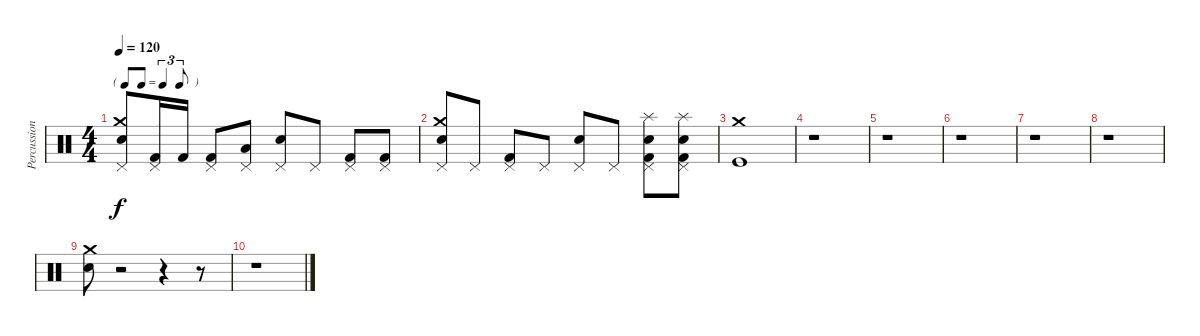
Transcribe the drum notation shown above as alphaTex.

\track ("Percussions" "Percussion") {instrument percussion}
\staff {score}
\articulation defaults
\ts (4 4)
\tf triplet8th
\tempo 120
\clef neutral
\ks c
("Snare (hit) 2" "Crash medium (hit)" "Pedal Hi-Hat (hit)").8{dy f} ("Kick (hit) 2" "Pedal Hi-Hat (hit)").16 "Kick (hit) 2".16 ("Kick (hit) 2" "Pedal Hi-Hat (hit)").8 ("Low Tom (hit)" "Pedal Hi-Hat (hit)").8 ("Electric Snare (hit)" "Pedal Hi-Hat (hit)").8 "Pedal Hi-Hat (hit)".8 ("Kick (hit) 2" "Pedal Hi-Hat (hit)").8 ("Kick (hit) 2" "Pedal Hi-Hat (hit)").8 |
("Snare (hit) 2" "Crash medium (hit)" "Pedal Hi-Hat (hit)").8 "Pedal Hi-Hat (hit)".8 ("Kick (hit) 2" "Pedal Hi-Hat (hit)").8 "Pedal Hi-Hat (hit)".8 ("Electric Snare (hit)" "Pedal Hi-Hat (hit)").8 "Pedal Hi-Hat (hit)".8 ("Electric Snare (hit)" "Splash (hit)" "Kick (hit) 2" "Pedal Hi-Hat (hit)").8 ("Electric Snare (hit)" "Splash (hit)" "Kick (hit) 2" "Pedal Hi-Hat (hit)").8 |
("Crash medium (hit)" "Kick (hit)").1 |
r.1 |
r.1 |
r.1 |
r.1 |
r.1 |
("Crash medium (hit)" "Electric Snare (hit)").8 r.2 r.4 r.8 |
r.1
